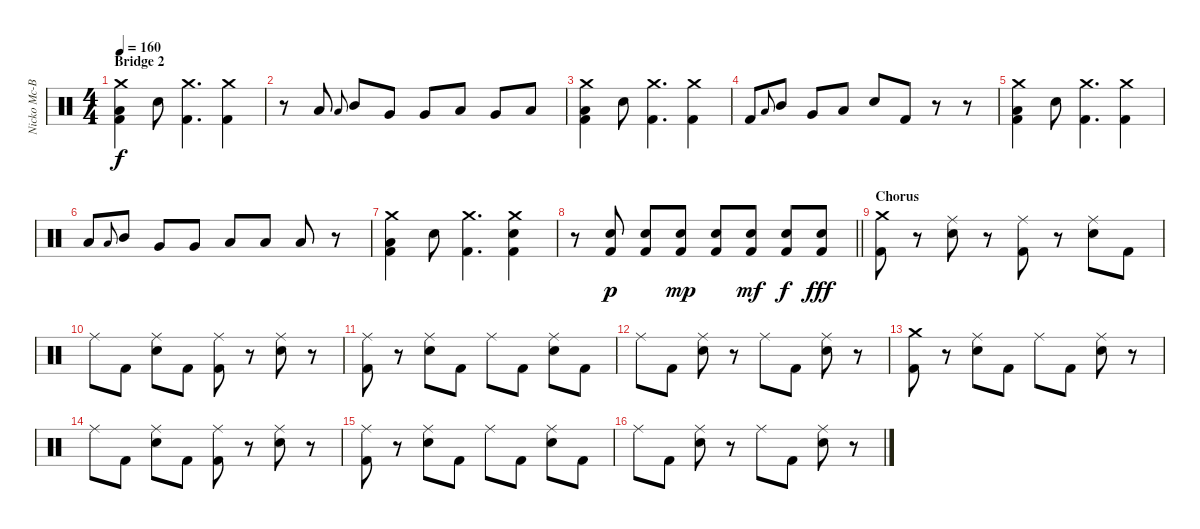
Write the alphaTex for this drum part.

\track ("Nicko Mc-Brain" "Nicko Mc-B") {instrument percussion}
\staff {score}
\articulation defaults
\ts (4 4)
\section ("" "Bridge 2")
\tempo 160
\clef neutral
\ks c
("Crash medium (hit)" "Low Floor Tom (hit)" "Kick (hit) 2").4{dy f} "Snare (hit) 2".8 ("Crash medium (hit)" "Kick (hit) 2").4{d} ("Crash medium (hit)" "Kick (hit) 2").4 |
r.8 "Low Floor Tom (hit)".8 "Low Tom (hit)".8{gr onbeat} "Mid Tom (hit)".8 "Very Low Tom (hit)".8 "Very Low Tom (hit)".8 "Low Tom (hit)".8 "Very Low Tom (hit)".8 "Low Floor Tom (hit)".8 |
("Crash medium (hit)" "Low Floor Tom (hit)" "Kick (hit) 2").4 "Snare (hit) 2".8 ("Crash medium (hit)" "Kick (hit) 2").4{d} ("Crash medium (hit)" "Kick (hit) 2").4 |
"Kick (hit) 2".8 "Low Tom (hit)".8{gr onbeat} "Mid Tom (hit)".8 "Very Low Tom (hit)".8 "Low Tom (hit)".8 "Snare (hit) 2".8 "Kick (hit) 2".8 r.8 r.8 |
("Crash medium (hit)" "Low Floor Tom (hit)" "Kick (hit) 2").4 "Snare (hit) 2".8 ("Crash medium (hit)" "Kick (hit) 2").4{d} ("Crash medium (hit)" "Kick (hit) 2").4 |
"Low Floor Tom (hit)".8 "Low Tom (hit)".8{gr onbeat} "Mid Tom (hit)".8 "Very Low Tom (hit)".8 "Very Low Tom (hit)".8 "Low Tom (hit)".8 "Low Floor Tom (hit)".8 "Low Floor Tom (hit)".8 r.8 |
("Crash medium (hit)" "Low Floor Tom (hit)" "Kick (hit) 2").4 "Snare (hit) 2".8 ("Crash medium (hit)" "Kick (hit) 2").4{d} ("Crash medium (hit)" "Snare (hit) 2" "Kick (hit) 2").4 |
\barLineRight lightlight
r.8 ("Snare (hit) 2" "Kick (hit) 2").8{dy p} ("Snare (hit) 2" "Kick (hit) 2").8 ("Snare (hit) 2" "Kick (hit) 2").8{dy mp} ("Snare (hit) 2" "Kick (hit) 2").8 ("Snare (hit) 2" "Kick (hit) 2").8{dy mf} ("Snare (hit) 2" "Kick (hit) 2").8{dy f} ("Snare (hit) 2" "Kick (hit) 2").8{dy fff} |
\section ("" "Chorus")
("Crash medium (hit)" "Kick (hit) 2").8 r.8 ("Ride (middle)" "Snare (hit) 2").8 r.8 ("Ride (middle)" "Kick (hit) 2").8 r.8 ("Ride (middle)" "Snare (hit) 2").8 "Kick (hit) 2".8 |
"Ride (middle)".8 "Kick (hit) 2".8 ("Ride (middle)" "Snare (hit) 2").8 "Kick (hit) 2".8 ("Ride (middle)" "Kick (hit) 2").8 r.8 ("Ride (middle)" "Snare (hit) 2").8 r.8 |
("Ride (middle)" "Kick (hit) 2").8 r.8 ("Ride (middle)" "Snare (hit) 2").8 "Kick (hit) 2".8 "Ride (middle)".8 "Kick (hit) 2".8 ("Ride (middle)" "Snare (hit) 2").8 "Kick (hit) 2".8 |
"Ride (middle)".8 "Kick (hit) 2".8 ("Ride (middle)" "Snare (hit) 2").8 r.8 "Ride (middle)".8 "Kick (hit) 2".8 ("Ride (middle)" "Snare (hit) 2").8 r.8 |
("Crash medium (hit)" "Kick (hit) 2").8 r.8 ("Ride (middle)" "Snare (hit) 2").8 "Kick (hit) 2".8 "Ride (middle)".8 "Kick (hit) 2".8 ("Ride (middle)" "Snare (hit) 2").8 r.8 |
"Ride (middle)".8 "Kick (hit) 2".8 ("Ride (middle)" "Snare (hit) 2").8 "Kick (hit) 2".8 ("Ride (middle)" "Kick (hit) 2").8 r.8 ("Ride (middle)" "Snare (hit) 2").8 r.8 |
("Ride (middle)" "Kick (hit) 2").8 r.8 ("Ride (middle)" "Snare (hit) 2").8 "Kick (hit) 2".8 "Ride (middle)".8 "Kick (hit) 2".8 ("Ride (middle)" "Snare (hit) 2").8 "Kick (hit) 2".8 |
"Ride (middle)".8 "Kick (hit) 2".8 ("Ride (middle)" "Snare (hit) 2").8 r.8 "Ride (middle)".8 "Kick (hit) 2".8 ("Ride (middle)" "Snare (hit) 2").8 r.8
